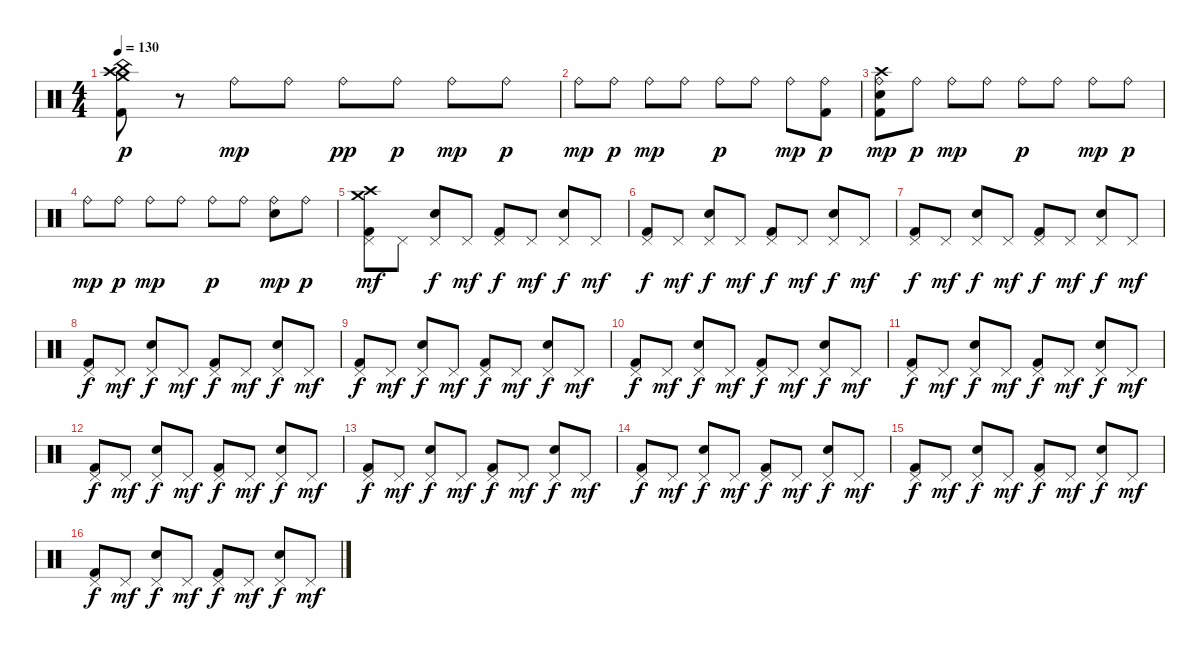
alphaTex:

\track "" {instrument percussion}
\staff {score}
\articulation defaults
\ts (4 4)
\tempo 130
\clef neutral
\ks c
("Crash medium (hit)" "Crash high (hit)" "China (hit)" "Kick (hit) 2").8{dy p} r.8 "Ride (bell)".8{dy mp} "Ride (bell)".8 "Ride (bell)".8{dy pp} "Ride (bell)".8{dy p} "Ride (bell)".8{dy mp} "Ride (bell)".8{dy p} |
"Ride (bell)".8{dy mp} "Ride (bell)".8{dy p} "Ride (bell)".8{dy mp} "Ride (bell)".8 "Ride (bell)".8{dy p} "Ride (bell)".8 "Ride (bell)".8{dy mp} ("Kick (hit) 2" "Ride (bell)").8{dy p} |
("Crash high (hit)" "Snare (hit) 2" "Kick (hit) 2" "Ride (bell)").8{dy mp} "Ride (bell)".8{dy p} "Ride (bell)".8{dy mp} "Ride (bell)".8 "Ride (bell)".8{dy p} "Ride (bell)".8 "Ride (bell)".8{dy mp} "Ride (bell)".8{dy p} |
"Ride (bell)".8{dy mp} "Ride (bell)".8{dy p} "Ride (bell)".8{dy mp} "Ride (bell)".8 "Ride (bell)".8{dy p} "Ride (bell)".8 ("Snare (hit) 2" "Ride (bell)").8{dy mp} "Ride (bell)".8{dy p} |
("Crash medium (hit)" "Crash high (hit)" "Pedal Hi-Hat (hit)" "Kick (hit) 2").8{dy mf} "Pedal Hi-Hat (hit)".8 ("Pedal Hi-Hat (hit)" "Snare (hit) 2").8{dy f} "Pedal Hi-Hat (hit)".8{dy mf} ("Pedal Hi-Hat (hit)" "Kick (hit) 2").8{dy f} "Pedal Hi-Hat (hit)".8{dy mf} ("Pedal Hi-Hat (hit)" "Snare (hit) 2").8{dy f} "Pedal Hi-Hat (hit)".8{dy mf} |
("Pedal Hi-Hat (hit)" "Kick (hit) 2").8{dy f} "Pedal Hi-Hat (hit)".8{dy mf} ("Pedal Hi-Hat (hit)" "Snare (hit) 2").8{dy f} "Pedal Hi-Hat (hit)".8{dy mf} ("Pedal Hi-Hat (hit)" "Kick (hit) 2").8{dy f} "Pedal Hi-Hat (hit)".8{dy mf} ("Pedal Hi-Hat (hit)" "Snare (hit) 2").8{dy f} "Pedal Hi-Hat (hit)".8{dy mf} |
("Pedal Hi-Hat (hit)" "Kick (hit) 2").8{dy f} "Pedal Hi-Hat (hit)".8{dy mf} ("Pedal Hi-Hat (hit)" "Snare (hit) 2").8{dy f} "Pedal Hi-Hat (hit)".8{dy mf} ("Pedal Hi-Hat (hit)" "Kick (hit) 2").8{dy f} "Pedal Hi-Hat (hit)".8{dy mf} ("Pedal Hi-Hat (hit)" "Snare (hit) 2").8{dy f} "Pedal Hi-Hat (hit)".8{dy mf} |
("Pedal Hi-Hat (hit)" "Kick (hit) 2").8{dy f} "Pedal Hi-Hat (hit)".8{dy mf} ("Pedal Hi-Hat (hit)" "Snare (hit) 2").8{dy f} "Pedal Hi-Hat (hit)".8{dy mf} ("Pedal Hi-Hat (hit)" "Kick (hit) 2").8{dy f} "Pedal Hi-Hat (hit)".8{dy mf} ("Pedal Hi-Hat (hit)" "Snare (hit) 2").8{dy f} "Pedal Hi-Hat (hit)".8{dy mf} |
("Pedal Hi-Hat (hit)" "Kick (hit) 2").8{dy f} "Pedal Hi-Hat (hit)".8{dy mf} ("Pedal Hi-Hat (hit)" "Snare (hit) 2").8{dy f} "Pedal Hi-Hat (hit)".8{dy mf} ("Pedal Hi-Hat (hit)" "Kick (hit) 2").8{dy f} "Pedal Hi-Hat (hit)".8{dy mf} ("Pedal Hi-Hat (hit)" "Snare (hit) 2").8{dy f} "Pedal Hi-Hat (hit)".8{dy mf} |
("Pedal Hi-Hat (hit)" "Kick (hit) 2").8{dy f} "Pedal Hi-Hat (hit)".8{dy mf} ("Pedal Hi-Hat (hit)" "Snare (hit) 2").8{dy f} "Pedal Hi-Hat (hit)".8{dy mf} ("Pedal Hi-Hat (hit)" "Kick (hit) 2").8{dy f} "Pedal Hi-Hat (hit)".8{dy mf} ("Pedal Hi-Hat (hit)" "Snare (hit) 2").8{dy f} "Pedal Hi-Hat (hit)".8{dy mf} |
("Pedal Hi-Hat (hit)" "Kick (hit) 2").8{dy f} "Pedal Hi-Hat (hit)".8{dy mf} ("Pedal Hi-Hat (hit)" "Snare (hit) 2").8{dy f} "Pedal Hi-Hat (hit)".8{dy mf} ("Pedal Hi-Hat (hit)" "Kick (hit) 2").8{dy f} "Pedal Hi-Hat (hit)".8{dy mf} ("Pedal Hi-Hat (hit)" "Snare (hit) 2").8{dy f} "Pedal Hi-Hat (hit)".8{dy mf} |
("Pedal Hi-Hat (hit)" "Kick (hit) 2").8{dy f} "Pedal Hi-Hat (hit)".8{dy mf} ("Pedal Hi-Hat (hit)" "Snare (hit) 2").8{dy f} "Pedal Hi-Hat (hit)".8{dy mf} ("Pedal Hi-Hat (hit)" "Kick (hit) 2").8{dy f} "Pedal Hi-Hat (hit)".8{dy mf} ("Pedal Hi-Hat (hit)" "Snare (hit) 2").8{dy f} "Pedal Hi-Hat (hit)".8{dy mf} |
("Pedal Hi-Hat (hit)" "Kick (hit) 2").8{dy f} "Pedal Hi-Hat (hit)".8{dy mf} ("Pedal Hi-Hat (hit)" "Snare (hit) 2").8{dy f} "Pedal Hi-Hat (hit)".8{dy mf} ("Pedal Hi-Hat (hit)" "Kick (hit) 2").8{dy f} "Pedal Hi-Hat (hit)".8{dy mf} ("Pedal Hi-Hat (hit)" "Snare (hit) 2").8{dy f} "Pedal Hi-Hat (hit)".8{dy mf} |
("Pedal Hi-Hat (hit)" "Kick (hit) 2").8{dy f} "Pedal Hi-Hat (hit)".8{dy mf} ("Pedal Hi-Hat (hit)" "Snare (hit) 2").8{dy f} "Pedal Hi-Hat (hit)".8{dy mf} ("Pedal Hi-Hat (hit)" "Kick (hit) 2").8{dy f} "Pedal Hi-Hat (hit)".8{dy mf} ("Pedal Hi-Hat (hit)" "Snare (hit) 2").8{dy f} "Pedal Hi-Hat (hit)".8{dy mf} |
("Pedal Hi-Hat (hit)" "Kick (hit) 2").8{dy f} "Pedal Hi-Hat (hit)".8{dy mf} ("Pedal Hi-Hat (hit)" "Snare (hit) 2").8{dy f} "Pedal Hi-Hat (hit)".8{dy mf} ("Pedal Hi-Hat (hit)" "Kick (hit) 2").8{dy f} "Pedal Hi-Hat (hit)".8{dy mf} ("Pedal Hi-Hat (hit)" "Snare (hit) 2").8{dy f} "Pedal Hi-Hat (hit)".8{dy mf} |
("Pedal Hi-Hat (hit)" "Kick (hit) 2").8{dy f} "Pedal Hi-Hat (hit)".8{dy mf} ("Pedal Hi-Hat (hit)" "Snare (hit) 2").8{dy f} "Pedal Hi-Hat (hit)".8{dy mf} ("Pedal Hi-Hat (hit)" "Kick (hit) 2").8{dy f} "Pedal Hi-Hat (hit)".8{dy mf} ("Pedal Hi-Hat (hit)" "Snare (hit) 2").8{dy f} "Pedal Hi-Hat (hit)".8{dy mf}
